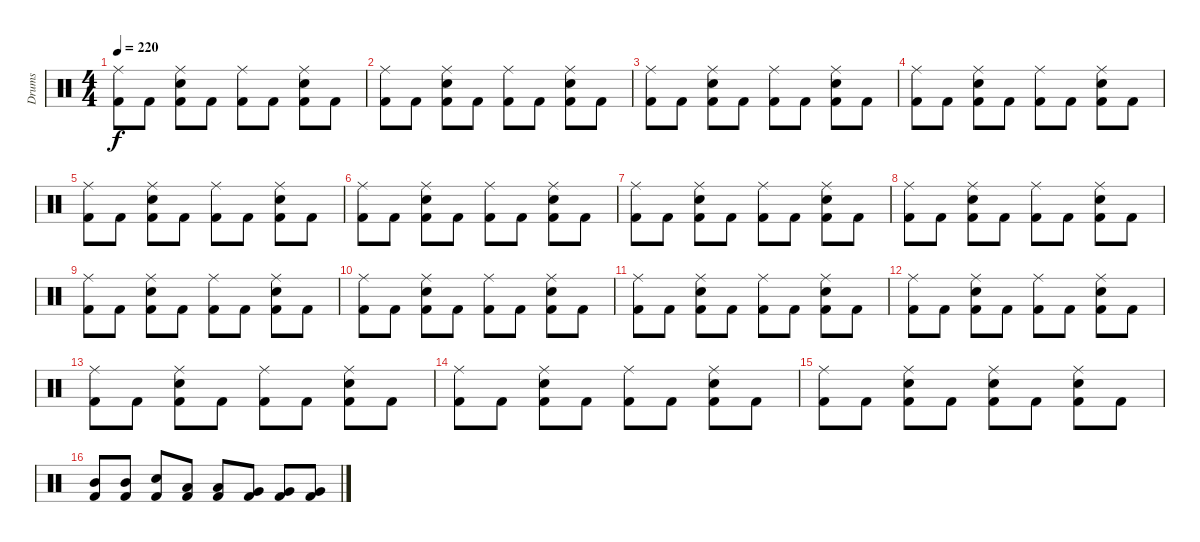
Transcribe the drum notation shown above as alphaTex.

\track ("Drums" "Drums") {instrument percussion}
\staff {score}
\articulation defaults
\ts (4 4)
\tempo 220
\clef neutral
\ks c
("Ride (middle)" "Kick (hit) 2").8{dy f} "Kick (hit) 2".8 ("Electric Snare (hit)" "Ride (middle)" "Kick (hit) 2").8 "Kick (hit) 2".8 ("Ride (middle)" "Kick (hit) 2").8 "Kick (hit) 2".8 ("Electric Snare (hit)" "Ride (middle)" "Kick (hit) 2").8 "Kick (hit) 2".8 |
("Ride (middle)" "Kick (hit) 2").8 "Kick (hit) 2".8 ("Electric Snare (hit)" "Ride (middle)" "Kick (hit) 2").8 "Kick (hit) 2".8 ("Ride (middle)" "Kick (hit) 2").8 "Kick (hit) 2".8 ("Electric Snare (hit)" "Ride (middle)" "Kick (hit) 2").8 "Kick (hit) 2".8 |
("Ride (middle)" "Kick (hit) 2").8 "Kick (hit) 2".8 ("Electric Snare (hit)" "Ride (middle)" "Kick (hit) 2").8 "Kick (hit) 2".8 ("Ride (middle)" "Kick (hit) 2").8 "Kick (hit) 2".8 ("Electric Snare (hit)" "Ride (middle)" "Kick (hit) 2").8 "Kick (hit) 2".8 |
("Ride (middle)" "Kick (hit) 2").8 "Kick (hit) 2".8 ("Electric Snare (hit)" "Ride (middle)" "Kick (hit) 2").8 "Kick (hit) 2".8 ("Ride (middle)" "Kick (hit) 2").8 "Kick (hit) 2".8 ("Electric Snare (hit)" "Ride (middle)" "Kick (hit) 2").8 "Kick (hit) 2".8 |
("Ride (middle)" "Kick (hit) 2").8 "Kick (hit) 2".8 ("Electric Snare (hit)" "Ride (middle)" "Kick (hit) 2").8 "Kick (hit) 2".8 ("Ride (middle)" "Kick (hit) 2").8 "Kick (hit) 2".8 ("Electric Snare (hit)" "Ride (middle)" "Kick (hit) 2").8 "Kick (hit) 2".8 |
("Ride (middle)" "Kick (hit) 2").8 "Kick (hit) 2".8 ("Electric Snare (hit)" "Ride (middle)" "Kick (hit) 2").8 "Kick (hit) 2".8 ("Ride (middle)" "Kick (hit) 2").8 "Kick (hit) 2".8 ("Electric Snare (hit)" "Ride (middle)" "Kick (hit) 2").8 "Kick (hit) 2".8 |
("Ride (middle)" "Kick (hit) 2").8 "Kick (hit) 2".8 ("Electric Snare (hit)" "Ride (middle)" "Kick (hit) 2").8 "Kick (hit) 2".8 ("Ride (middle)" "Kick (hit) 2").8 "Kick (hit) 2".8 ("Electric Snare (hit)" "Ride (middle)" "Kick (hit) 2").8 "Kick (hit) 2".8 |
("Ride (middle)" "Kick (hit) 2").8 "Kick (hit) 2".8 ("Electric Snare (hit)" "Ride (middle)" "Kick (hit) 2").8 "Kick (hit) 2".8 ("Ride (middle)" "Kick (hit) 2").8 "Kick (hit) 2".8 ("Electric Snare (hit)" "Ride (middle)" "Kick (hit) 2").8 "Kick (hit) 2".8 |
("Ride (middle)" "Kick (hit) 2").8 "Kick (hit) 2".8 ("Electric Snare (hit)" "Ride (middle)" "Kick (hit) 2").8 "Kick (hit) 2".8 ("Ride (middle)" "Kick (hit) 2").8 "Kick (hit) 2".8 ("Electric Snare (hit)" "Ride (middle)" "Kick (hit) 2").8 "Kick (hit) 2".8 |
("Ride (middle)" "Kick (hit) 2").8 "Kick (hit) 2".8 ("Electric Snare (hit)" "Ride (middle)" "Kick (hit) 2").8 "Kick (hit) 2".8 ("Ride (middle)" "Kick (hit) 2").8 "Kick (hit) 2".8 ("Electric Snare (hit)" "Ride (middle)" "Kick (hit) 2").8 "Kick (hit) 2".8 |
("Ride (middle)" "Kick (hit) 2").8 "Kick (hit) 2".8 ("Electric Snare (hit)" "Ride (middle)" "Kick (hit) 2").8 "Kick (hit) 2".8 ("Ride (middle)" "Kick (hit) 2").8 "Kick (hit) 2".8 ("Electric Snare (hit)" "Ride (middle)" "Kick (hit) 2").8 "Kick (hit) 2".8 |
("Ride (middle)" "Kick (hit) 2").8 "Kick (hit) 2".8 ("Electric Snare (hit)" "Ride (middle)" "Kick (hit) 2").8 "Kick (hit) 2".8 ("Ride (middle)" "Kick (hit) 2").8 "Kick (hit) 2".8 ("Electric Snare (hit)" "Ride (middle)" "Kick (hit) 2").8 "Kick (hit) 2".8 |
("Ride (middle)" "Kick (hit) 2").8 "Kick (hit) 2".8 ("Electric Snare (hit)" "Ride (middle)" "Kick (hit) 2").8 "Kick (hit) 2".8 ("Ride (middle)" "Kick (hit) 2").8 "Kick (hit) 2".8 ("Electric Snare (hit)" "Ride (middle)" "Kick (hit) 2").8 "Kick (hit) 2".8 |
("Ride (middle)" "Kick (hit) 2").8 "Kick (hit) 2".8 ("Electric Snare (hit)" "Ride (middle)" "Kick (hit) 2").8 "Kick (hit) 2".8 ("Ride (middle)" "Kick (hit) 2").8 "Kick (hit) 2".8 ("Electric Snare (hit)" "Ride (middle)" "Kick (hit) 2").8 "Kick (hit) 2".8 |
("Ride (middle)" "Kick (hit) 2").8 "Kick (hit) 2".8 ("Electric Snare (hit)" "Ride (middle)" "Kick (hit) 2").8 "Kick (hit) 2".8 ("Electric Snare (hit)" "Ride (middle)" "Kick (hit) 2").8 "Kick (hit) 2".8 ("Electric Snare (hit)" "Ride (middle)" "Kick (hit) 2").8 "Kick (hit) 2".8 |
("Mid Tom (hit)" "Kick (hit) 2").8 ("Mid Tom (hit)" "Kick (hit) 2").8 ("Electric Snare (hit)" "Kick (hit) 2").8 ("Low Tom (hit)" "Kick (hit) 2").8 ("Low Tom (hit)" "Kick (hit) 2").8 ("Very Low Tom (hit)" "Kick (hit) 2").8 ("Very Low Tom (hit)" "Kick (hit) 2").8 ("Very Low Tom (hit)" "Kick (hit) 2").8
